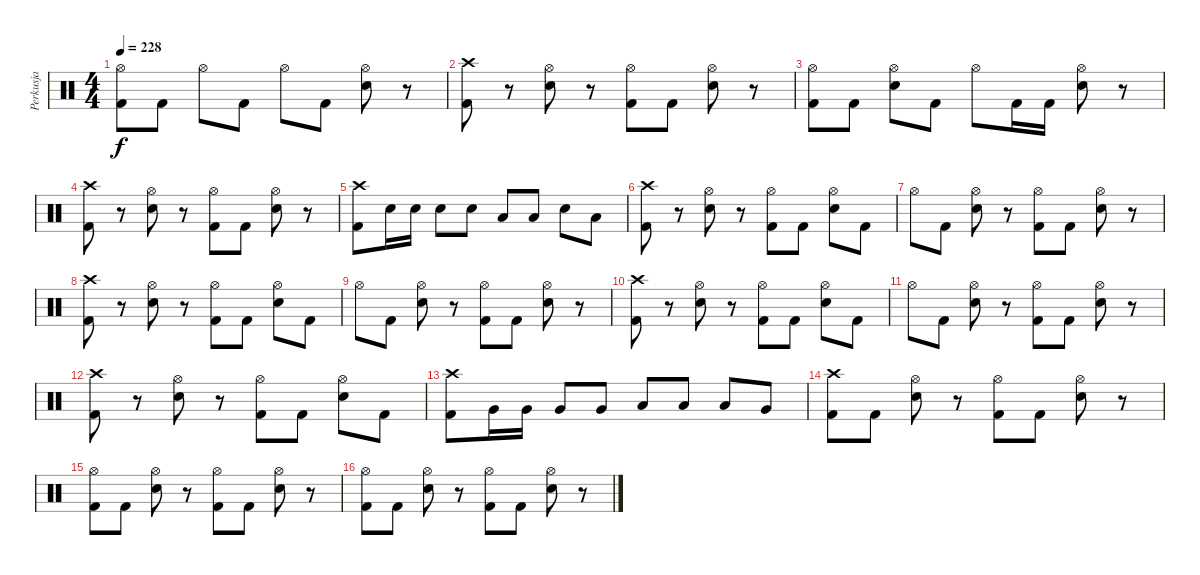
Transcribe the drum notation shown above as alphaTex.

\track ("Perkusja" "Perkusja") {instrument percussion bank 10}
\staff {score}
\articulation defaults
\ts (4 4)
\tempo 228
\clef neutral
\ks c
("Hi-Hat (open)" "Kick (hit) 2").8{dy f} "Kick (hit) 2".8 "Hi-Hat (open)".8 "Kick (hit) 2".8 "Hi-Hat (open)".8 "Kick (hit) 2".8 ("Hi-Hat (open)" "Snare (hit) 2").8 r.8 |
("Crash high (hit)" "Kick (hit) 2").8 r.8 ("Hi-Hat (open)" "Snare (hit) 2").8 r.8 ("Hi-Hat (open)" "Kick (hit) 2").8 "Kick (hit) 2".8 ("Hi-Hat (open)" "Snare (hit) 2").8 r.8 |
("Hi-Hat (open)" "Kick (hit) 2").8 "Kick (hit) 2".8 ("Hi-Hat (open)" "Snare (hit) 2").8 "Kick (hit) 2".8 "Hi-Hat (open)".8 "Kick (hit) 2".16 "Kick (hit) 2".16 ("Hi-Hat (open)" "Snare (hit) 2").8 r.8 |
("Crash high (hit)" "Kick (hit) 2").8 r.8 ("Hi-Hat (open)" "Snare (hit) 2").8 r.8 ("Hi-Hat (open)" "Kick (hit) 2").8 "Kick (hit) 2".8 ("Hi-Hat (open)" "Snare (hit) 2").8 r.8 |
("Crash high (hit)" "Kick (hit) 2").8 "Snare (hit) 2".16 "Snare (hit) 2".16 "Snare (hit) 2".8 "Snare (hit) 2".8 "Low Tom (hit)".8 "Low Tom (hit)".8 "Snare (hit) 2".8 "Low Tom (hit)".8 |
("Crash high (hit)" "Kick (hit) 2").8 r.8 ("Hi-Hat (open)" "Snare (hit) 2").8 r.8 ("Hi-Hat (open)" "Kick (hit) 2").8 "Kick (hit) 2".8 ("Hi-Hat (open)" "Snare (hit) 2").8 "Kick (hit) 2".8 |
"Hi-Hat (open)".8 "Kick (hit) 2".8 ("Hi-Hat (open)" "Snare (hit) 2").8 r.8 ("Hi-Hat (open)" "Kick (hit) 2").8 "Kick (hit) 2".8 ("Hi-Hat (open)" "Snare (hit) 2").8 r.8 |
("Crash high (hit)" "Kick (hit) 2").8 r.8 ("Hi-Hat (open)" "Snare (hit) 2").8 r.8 ("Hi-Hat (open)" "Kick (hit) 2").8 "Kick (hit) 2".8 ("Hi-Hat (open)" "Snare (hit) 2").8 "Kick (hit) 2".8 |
"Hi-Hat (open)".8 "Kick (hit) 2".8 ("Hi-Hat (open)" "Snare (hit) 2").8 r.8 ("Hi-Hat (open)" "Kick (hit) 2").8 "Kick (hit) 2".8 ("Hi-Hat (open)" "Snare (hit) 2").8 r.8 |
("Crash high (hit)" "Kick (hit) 2").8 r.8 ("Hi-Hat (open)" "Snare (hit) 2").8 r.8 ("Hi-Hat (open)" "Kick (hit) 2").8 "Kick (hit) 2".8 ("Hi-Hat (open)" "Snare (hit) 2").8 "Kick (hit) 2".8 |
"Hi-Hat (open)".8 "Kick (hit) 2".8 ("Hi-Hat (open)" "Snare (hit) 2").8 r.8 ("Hi-Hat (open)" "Kick (hit) 2").8 "Kick (hit) 2".8 ("Hi-Hat (open)" "Snare (hit) 2").8 r.8 |
("Crash high (hit)" "Kick (hit) 2").8 r.8 ("Hi-Hat (open)" "Snare (hit) 2").8 r.8 ("Hi-Hat (open)" "Kick (hit) 2").8 "Kick (hit) 2".8 ("Hi-Hat (open)" "Snare (hit) 2").8 "Kick (hit) 2".8 |
("Crash high (hit)" "Kick (hit) 2").8 "Very Low Tom (hit)".16 "Very Low Tom (hit)".16 "Very Low Tom (hit)".8 "Very Low Tom (hit)".8 "Low Floor Tom (hit)".8 "Low Floor Tom (hit)".8 "Low Tom (hit)".8 "Very Low Tom (hit)".8 |
("Crash high (hit)" "Kick (hit) 2").8 "Kick (hit) 2".8 ("Hi-Hat (open)" "Snare (hit) 2").8 r.8 ("Hi-Hat (open)" "Kick (hit) 2").8 "Kick (hit) 2".8 ("Hi-Hat (open)" "Snare (hit) 2").8 r.8 |
("Hi-Hat (open)" "Kick (hit) 2").8 "Kick (hit) 2".8 ("Hi-Hat (open)" "Snare (hit) 2").8 r.8 ("Hi-Hat (open)" "Kick (hit) 2").8 "Kick (hit) 2".8 ("Hi-Hat (open)" "Snare (hit) 2").8 r.8 |
("Hi-Hat (open)" "Kick (hit) 2").8 "Kick (hit) 2".8 ("Hi-Hat (open)" "Snare (hit) 2").8 r.8 ("Hi-Hat (open)" "Kick (hit) 2").8 "Kick (hit) 2".8 ("Hi-Hat (open)" "Snare (hit) 2").8 r.8
